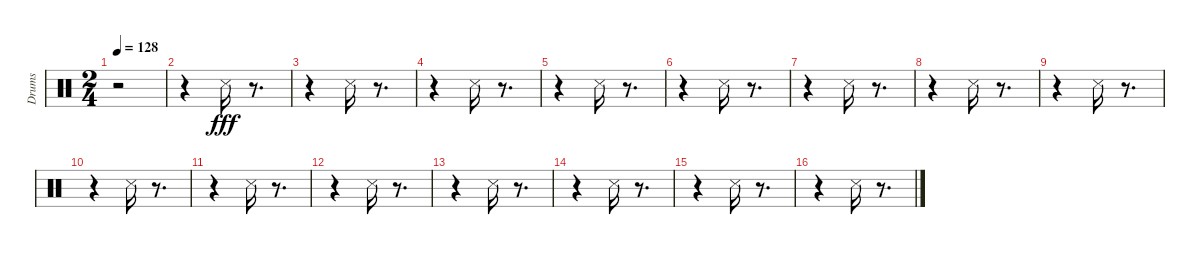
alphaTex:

\track ("Drums" "Drums") {instrument percussion}
\staff {score}
\articulation defaults
\ts (2 4)
\tempo 128
\clef neutral
\ks c
r.2{dy fff} |
r.4 "Snare (side stick) 3".16 r.8{d} |
r.4 "Snare (side stick) 3".16 r.8{d} |
r.4 "Snare (side stick) 3".16 r.8{d} |
r.4 "Snare (side stick) 3".16 r.8{d} |
r.4 "Snare (side stick) 3".16 r.8{d} |
r.4 "Snare (side stick) 3".16 r.8{d} |
r.4 "Snare (side stick) 3".16 r.8{d} |
r.4 "Snare (side stick) 3".16 r.8{d} |
r.4 "Snare (side stick) 3".16 r.8{d} |
r.4 "Snare (side stick) 3".16 r.8{d} |
r.4 "Snare (side stick) 3".16 r.8{d} |
r.4 "Snare (side stick) 3".16 r.8{d} |
r.4 "Snare (side stick) 3".16 r.8{d} |
r.4 "Snare (side stick) 3".16 r.8{d} |
r.4 "Snare (side stick) 3".16 r.8{d}
